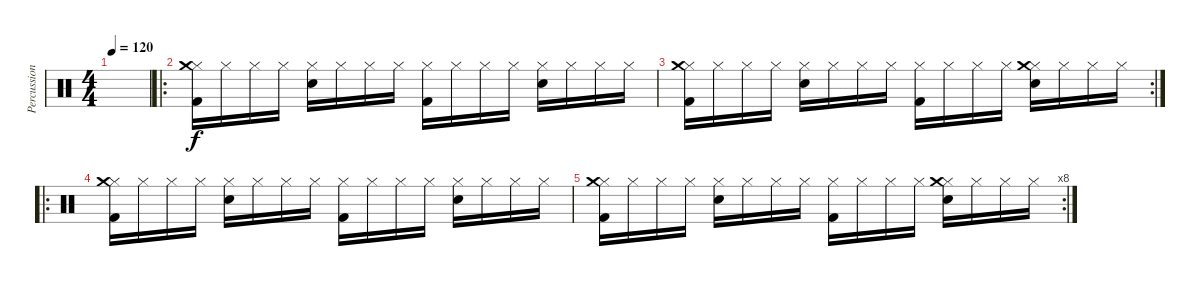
\track ("Percussions" "Percussion") {instrument percussion}
\staff {score}
\articulation defaults
\ts (4 4)
\tempo 120
\clef neutral
\ks c
|
\ro
("Kick (hit) 2" "Hi-Hat (closed)" "Crash medium (hit)").16 "Hi-Hat (closed)".16 "Hi-Hat (closed)".16 "Hi-Hat (closed)".16 ("Hi-Hat (closed)" "Electric Snare (hit)").16 "Hi-Hat (closed)".16 "Hi-Hat (closed)".16 "Hi-Hat (closed)".16 ("Kick (hit) 2" "Hi-Hat (closed)").16 "Hi-Hat (closed)".16 "Hi-Hat (closed)".16 "Hi-Hat (closed)".16 ("Hi-Hat (closed)" "Electric Snare (hit)").16 "Hi-Hat (closed)".16 "Hi-Hat (closed)".16 "Hi-Hat (closed)".16 |
\rc 2
("Kick (hit) 2" "Hi-Hat (closed)" "Crash medium (hit)").16 "Hi-Hat (closed)".16 "Hi-Hat (closed)".16 "Hi-Hat (closed)".16 ("Hi-Hat (closed)" "Electric Snare (hit)").16 "Hi-Hat (closed)".16 "Hi-Hat (closed)".16 "Hi-Hat (closed)".16 ("Kick (hit) 2" "Hi-Hat (closed)").16 "Hi-Hat (closed)".16 "Hi-Hat (closed)".16 "Hi-Hat (closed)".16 ("Hi-Hat (closed)" "Crash medium (hit)" "Electric Snare (hit)").16 "Hi-Hat (closed)".16 "Hi-Hat (closed)".16 "Hi-Hat (closed)".16 |
\ro
("Kick (hit) 2" "Hi-Hat (closed)" "Crash medium (hit)").16 "Hi-Hat (closed)".16 "Hi-Hat (closed)".16 "Hi-Hat (closed)".16 ("Hi-Hat (closed)" "Electric Snare (hit)").16 "Hi-Hat (closed)".16 "Hi-Hat (closed)".16 "Hi-Hat (closed)".16 ("Kick (hit) 2" "Hi-Hat (closed)").16 "Hi-Hat (closed)".16 "Hi-Hat (closed)".16 "Hi-Hat (closed)".16 ("Hi-Hat (closed)" "Electric Snare (hit)").16 "Hi-Hat (closed)".16 "Hi-Hat (closed)".16 "Hi-Hat (closed)".16 |
\rc 8
("Kick (hit) 2" "Hi-Hat (closed)" "Crash medium (hit)").16 "Hi-Hat (closed)".16 "Hi-Hat (closed)".16 "Hi-Hat (closed)".16 ("Hi-Hat (closed)" "Electric Snare (hit)").16 "Hi-Hat (closed)".16 "Hi-Hat (closed)".16 "Hi-Hat (closed)".16 ("Kick (hit) 2" "Hi-Hat (closed)").16 "Hi-Hat (closed)".16 "Hi-Hat (closed)".16 "Hi-Hat (closed)".16 ("Hi-Hat (closed)" "Crash medium (hit)" "Electric Snare (hit)").16 "Hi-Hat (closed)".16 "Hi-Hat (closed)".16 "Hi-Hat (closed)".16
